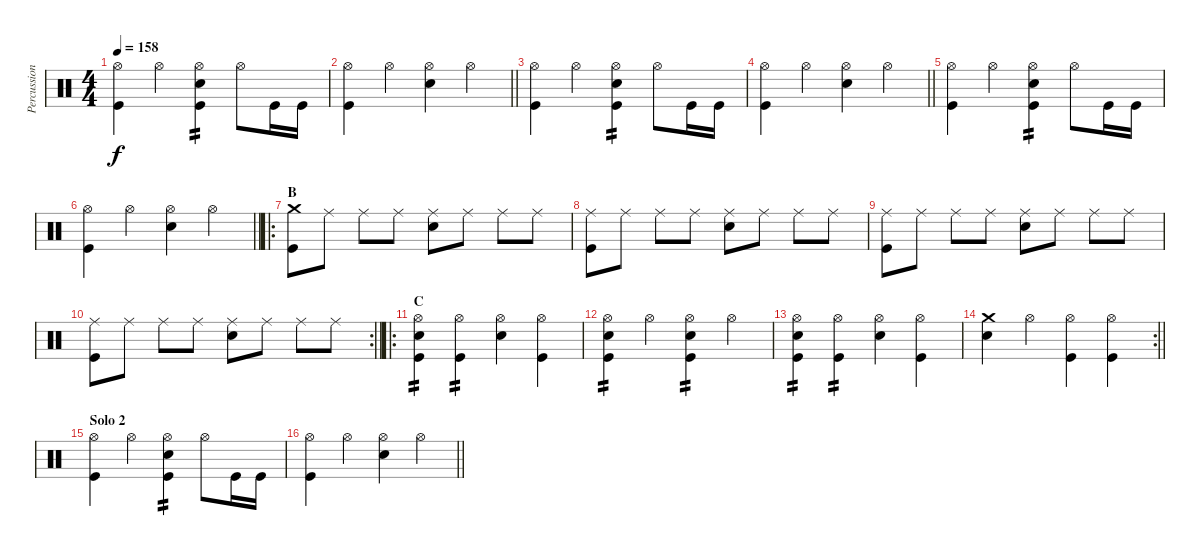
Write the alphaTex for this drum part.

\track ("Percussion" "Percussion") {instrument percussion}
\staff {score}
\articulation defaults
\ts (4 4)
\tempo 158
\clef neutral
\ks c
("Hi-Hat (open)" "Kick (hit)").4{dy f} "Hi-Hat (open)".4 ("Hi-Hat (open)" "Snare (hit) 2" "Kick (hit)").4{tp 2} "Hi-Hat (open)".8 "Kick (hit)".16 "Kick (hit)".16 |
\barLineRight lightlight
("Hi-Hat (open)" "Kick (hit)").4 "Hi-Hat (open)".4 ("Hi-Hat (open)" "Snare (hit) 2").4 "Hi-Hat (open)".4 |
("Hi-Hat (open)" "Kick (hit)").4 "Hi-Hat (open)".4 ("Hi-Hat (open)" "Snare (hit) 2" "Kick (hit)").4{tp 2} "Hi-Hat (open)".8 "Kick (hit)".16 "Kick (hit)".16 |
\barLineRight lightlight
("Hi-Hat (open)" "Kick (hit)").4 "Hi-Hat (open)".4 ("Hi-Hat (open)" "Snare (hit) 2").4 "Hi-Hat (open)".4 |
("Hi-Hat (open)" "Kick (hit)").4 "Hi-Hat (open)".4 ("Hi-Hat (open)" "Snare (hit) 2" "Kick (hit)").4{tp 2} "Hi-Hat (open)".8 "Kick (hit)".16 "Kick (hit)".16 |
\barLineRight lightlight
("Hi-Hat (open)" "Kick (hit)").4 "Hi-Hat (open)".4 ("Hi-Hat (open)" "Snare (hit) 2").4 "Hi-Hat (open)".4 |
\ro
\section ("" "B")
("Crash medium (hit)" "Kick (hit)").8 "Ride (middle)".8 "Ride (middle)".8 "Ride (middle)".8 ("Ride (middle)" "Snare (hit) 2").8 "Ride (middle)".8 "Ride (middle)".8 "Ride (middle)".8 |
("Ride (middle)" "Kick (hit)").8 "Ride (middle)".8 "Ride (middle)".8 "Ride (middle)".8 ("Ride (middle)" "Snare (hit) 2").8 "Ride (middle)".8 "Ride (middle)".8 "Ride (middle)".8 |
("Ride (middle)" "Kick (hit)").8 "Ride (middle)".8 "Ride (middle)".8 "Ride (middle)".8 ("Ride (middle)" "Snare (hit) 2").8 "Ride (middle)".8 "Ride (middle)".8 "Ride (middle)".8 |
\rc 2
\barLineRight lightlight
("Ride (middle)" "Kick (hit)").8 "Ride (middle)".8 "Ride (middle)".8 "Ride (middle)".8 ("Ride (middle)" "Snare (hit) 2").8 "Ride (middle)".8 "Ride (middle)".8 "Ride (middle)".8 |
\ro
\section ("" "C")
("Hi-Hat (open)" "Snare (hit) 2" "Kick (hit)").4{tp 2} ("Hi-Hat (open)" "Kick (hit)").4{tp 2} ("Hi-Hat (open)" "Snare (hit) 2").4 ("Hi-Hat (open)" "Kick (hit)").4 |
("Hi-Hat (open)" "Snare (hit) 2" "Kick (hit)").4{tp 2} "Hi-Hat (open)".4 ("Hi-Hat (open)" "Snare (hit) 2" "Kick (hit)").4{tp 2} "Hi-Hat (open)".4 |
("Hi-Hat (open)" "Snare (hit) 2" "Kick (hit)").4{tp 2} ("Hi-Hat (open)" "Kick (hit)").4{tp 2} ("Hi-Hat (open)" "Snare (hit) 2").4 ("Hi-Hat (open)" "Kick (hit)").4 |
\rc 2
\barLineRight lightlight
("Crash medium (hit)" "Snare (hit) 2").4 "Hi-Hat (open)".4 ("Hi-Hat (open)" "Kick (hit)").4 ("Hi-Hat (open)" "Kick (hit)").4 |
\section ("" "Solo 2")
("Hi-Hat (open)" "Kick (hit)").4 "Hi-Hat (open)".4 ("Hi-Hat (open)" "Snare (hit) 2" "Kick (hit)").4{tp 2} "Hi-Hat (open)".8 "Kick (hit)".16 "Kick (hit)".16 |
\barLineRight lightlight
("Hi-Hat (open)" "Kick (hit)").4 "Hi-Hat (open)".4 ("Hi-Hat (open)" "Snare (hit) 2").4 "Hi-Hat (open)".4
